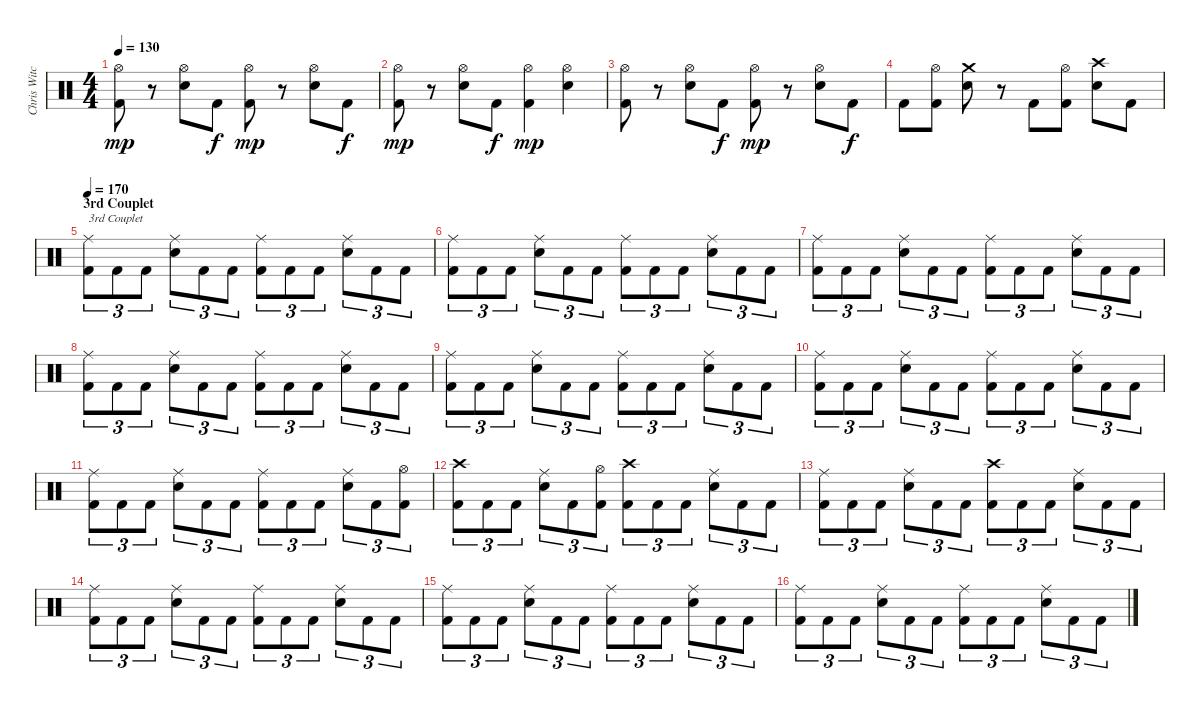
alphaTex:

\track ("Chris Witchhunter" "Chris Witc") {instrument percussion}
\staff {score}
\articulation defaults
\ts (4 4)
\tempo 130
\clef neutral
\ks c
("Hi-Hat (open)" "Kick (hit) 2").8{dy mp} r.8 ("Hi-Hat (open)" "Electric Snare (hit)").8 "Kick (hit) 2".8{dy f} ("Hi-Hat (open)" "Kick (hit) 2").8{dy mp} r.8 ("Hi-Hat (open)" "Electric Snare (hit)").8 "Kick (hit) 2".8{dy f} |
("Hi-Hat (open)" "Kick (hit) 2").8{dy mp} r.8 ("Hi-Hat (open)" "Electric Snare (hit)").8 "Kick (hit) 2".8{dy f} ("Hi-Hat (open)" "Kick (hit) 2").4{dy mp} ("Hi-Hat (open)" "Electric Snare (hit)").4 |
("Hi-Hat (open)" "Kick (hit) 2").8 r.8 ("Hi-Hat (open)" "Electric Snare (hit)").8 "Kick (hit) 2".8{dy f} ("Hi-Hat (open)" "Kick (hit) 2").8{dy mp} r.8 ("Hi-Hat (open)" "Electric Snare (hit)").8 "Kick (hit) 2".8{dy f} |
"Kick (hit) 2".8 ("Hi-Hat (open)" "Kick (hit) 2").8 ("Crash medium (hit)" "Electric Snare (hit)").8 r.8 "Kick (hit) 2".8 ("Hi-Hat (open)" "Kick (hit) 2").8 ("Crash high (hit)" "Electric Snare (hit)").8 "Kick (hit) 2".8 |
\section ("" "3rd Couplet")
\tempo 170
("Ride (middle)" "Kick (hit) 2").8{tu (3 2) txt "3rd Couplet"} "Kick (hit) 2".8{tu (3 2)} "Kick (hit) 2".8{tu (3 2)} ("Ride (middle)" "Electric Snare (hit)").8{tu (3 2)} "Kick (hit) 2".8{tu (3 2)} "Kick (hit) 2".8{tu (3 2)} ("Ride (middle)" "Kick (hit) 2").8{tu (3 2)} "Kick (hit) 2".8{tu (3 2)} "Kick (hit) 2".8{tu (3 2)} ("Ride (middle)" "Electric Snare (hit)").8{tu (3 2)} "Kick (hit) 2".8{tu (3 2)} "Kick (hit) 2".8{tu (3 2)} |
("Ride (middle)" "Kick (hit) 2").8{tu (3 2)} "Kick (hit) 2".8{tu (3 2)} "Kick (hit) 2".8{tu (3 2)} ("Ride (middle)" "Electric Snare (hit)").8{tu (3 2)} "Kick (hit) 2".8{tu (3 2)} "Kick (hit) 2".8{tu (3 2)} ("Ride (middle)" "Kick (hit) 2").8{tu (3 2)} "Kick (hit) 2".8{tu (3 2)} "Kick (hit) 2".8{tu (3 2)} ("Ride (middle)" "Electric Snare (hit)").8{tu (3 2)} "Kick (hit) 2".8{tu (3 2)} "Kick (hit) 2".8{tu (3 2)} |
("Ride (middle)" "Kick (hit) 2").8{tu (3 2)} "Kick (hit) 2".8{tu (3 2)} "Kick (hit) 2".8{tu (3 2)} ("Ride (middle)" "Electric Snare (hit)").8{tu (3 2)} "Kick (hit) 2".8{tu (3 2)} "Kick (hit) 2".8{tu (3 2)} ("Ride (middle)" "Kick (hit) 2").8{tu (3 2)} "Kick (hit) 2".8{tu (3 2)} "Kick (hit) 2".8{tu (3 2)} ("Ride (middle)" "Electric Snare (hit)").8{tu (3 2)} "Kick (hit) 2".8{tu (3 2)} "Kick (hit) 2".8{tu (3 2)} |
("Ride (middle)" "Kick (hit) 2").8{tu (3 2)} "Kick (hit) 2".8{tu (3 2)} "Kick (hit) 2".8{tu (3 2)} ("Ride (middle)" "Electric Snare (hit)").8{tu (3 2)} "Kick (hit) 2".8{tu (3 2)} "Kick (hit) 2".8{tu (3 2)} ("Ride (middle)" "Kick (hit) 2").8{tu (3 2)} "Kick (hit) 2".8{tu (3 2)} "Kick (hit) 2".8{tu (3 2)} ("Ride (middle)" "Electric Snare (hit)").8{tu (3 2)} "Kick (hit) 2".8{tu (3 2)} "Kick (hit) 2".8{tu (3 2)} |
("Ride (middle)" "Kick (hit) 2").8{tu (3 2)} "Kick (hit) 2".8{tu (3 2)} "Kick (hit) 2".8{tu (3 2)} ("Ride (middle)" "Electric Snare (hit)").8{tu (3 2)} "Kick (hit) 2".8{tu (3 2)} "Kick (hit) 2".8{tu (3 2)} ("Ride (middle)" "Kick (hit) 2").8{tu (3 2)} "Kick (hit) 2".8{tu (3 2)} "Kick (hit) 2".8{tu (3 2)} ("Ride (middle)" "Electric Snare (hit)").8{tu (3 2)} "Kick (hit) 2".8{tu (3 2)} "Kick (hit) 2".8{tu (3 2)} |
("Ride (middle)" "Kick (hit) 2").8{tu (3 2)} "Kick (hit) 2".8{tu (3 2)} "Kick (hit) 2".8{tu (3 2)} ("Ride (middle)" "Electric Snare (hit)").8{tu (3 2)} "Kick (hit) 2".8{tu (3 2)} "Kick (hit) 2".8{tu (3 2)} ("Ride (middle)" "Kick (hit) 2").8{tu (3 2)} "Kick (hit) 2".8{tu (3 2)} "Kick (hit) 2".8{tu (3 2)} ("Ride (middle)" "Electric Snare (hit)").8{tu (3 2)} "Kick (hit) 2".8{tu (3 2)} "Kick (hit) 2".8{tu (3 2)} |
("Ride (middle)" "Kick (hit) 2").8{tu (3 2)} "Kick (hit) 2".8{tu (3 2)} "Kick (hit) 2".8{tu (3 2)} ("Ride (middle)" "Electric Snare (hit)").8{tu (3 2)} "Kick (hit) 2".8{tu (3 2)} "Kick (hit) 2".8{tu (3 2)} ("Ride (middle)" "Kick (hit) 2").8{tu (3 2)} "Kick (hit) 2".8{tu (3 2)} "Kick (hit) 2".8{tu (3 2)} ("Ride (middle)" "Electric Snare (hit)").8{tu (3 2)} "Kick (hit) 2".8{tu (3 2)} ("Hi-Hat (open)" "Kick (hit) 2").8{tu (3 2)} |
("Crash high (hit)" "Kick (hit) 2").8{tu (3 2)} "Kick (hit) 2".8{tu (3 2)} "Kick (hit) 2".8{tu (3 2)} ("Ride (middle)" "Electric Snare (hit)").8{tu (3 2)} "Kick (hit) 2".8{tu (3 2)} ("Hi-Hat (open)" "Kick (hit) 2").8{tu (3 2)} ("Crash high (hit)" "Kick (hit) 2").8{tu (3 2)} "Kick (hit) 2".8{tu (3 2)} "Kick (hit) 2".8{tu (3 2)} ("Ride (middle)" "Electric Snare (hit)").8{tu (3 2)} "Kick (hit) 2".8{tu (3 2)} "Kick (hit) 2".8{tu (3 2)} |
("Ride (middle)" "Kick (hit) 2").8{tu (3 2)} "Kick (hit) 2".8{tu (3 2)} "Kick (hit) 2".8{tu (3 2)} ("Ride (middle)" "Electric Snare (hit)").8{tu (3 2)} "Kick (hit) 2".8{tu (3 2)} "Kick (hit) 2".8{tu (3 2)} ("Crash high (hit)" "Kick (hit) 2").8{tu (3 2)} "Kick (hit) 2".8{tu (3 2)} "Kick (hit) 2".8{tu (3 2)} ("Ride (middle)" "Electric Snare (hit)").8{tu (3 2)} "Kick (hit) 2".8{tu (3 2)} "Kick (hit) 2".8{tu (3 2)} |
("Ride (middle)" "Kick (hit) 2").8{tu (3 2)} "Kick (hit) 2".8{tu (3 2)} "Kick (hit) 2".8{tu (3 2)} ("Ride (middle)" "Electric Snare (hit)").8{tu (3 2)} "Kick (hit) 2".8{tu (3 2)} "Kick (hit) 2".8{tu (3 2)} ("Ride (middle)" "Kick (hit) 2").8{tu (3 2)} "Kick (hit) 2".8{tu (3 2)} "Kick (hit) 2".8{tu (3 2)} ("Ride (middle)" "Electric Snare (hit)").8{tu (3 2)} "Kick (hit) 2".8{tu (3 2)} "Kick (hit) 2".8{tu (3 2)} |
("Ride (middle)" "Kick (hit) 2").8{tu (3 2)} "Kick (hit) 2".8{tu (3 2)} "Kick (hit) 2".8{tu (3 2)} ("Ride (middle)" "Electric Snare (hit)").8{tu (3 2)} "Kick (hit) 2".8{tu (3 2)} "Kick (hit) 2".8{tu (3 2)} ("Ride (middle)" "Kick (hit) 2").8{tu (3 2)} "Kick (hit) 2".8{tu (3 2)} "Kick (hit) 2".8{tu (3 2)} ("Ride (middle)" "Electric Snare (hit)").8{tu (3 2)} "Kick (hit) 2".8{tu (3 2)} "Kick (hit) 2".8{tu (3 2)} |
("Ride (middle)" "Kick (hit) 2").8{tu (3 2)} "Kick (hit) 2".8{tu (3 2)} "Kick (hit) 2".8{tu (3 2)} ("Ride (middle)" "Electric Snare (hit)").8{tu (3 2)} "Kick (hit) 2".8{tu (3 2)} "Kick (hit) 2".8{tu (3 2)} ("Ride (middle)" "Kick (hit) 2").8{tu (3 2)} "Kick (hit) 2".8{tu (3 2)} "Kick (hit) 2".8{tu (3 2)} ("Ride (middle)" "Electric Snare (hit)").8{tu (3 2)} "Kick (hit) 2".8{tu (3 2)} "Kick (hit) 2".8{tu (3 2)}
